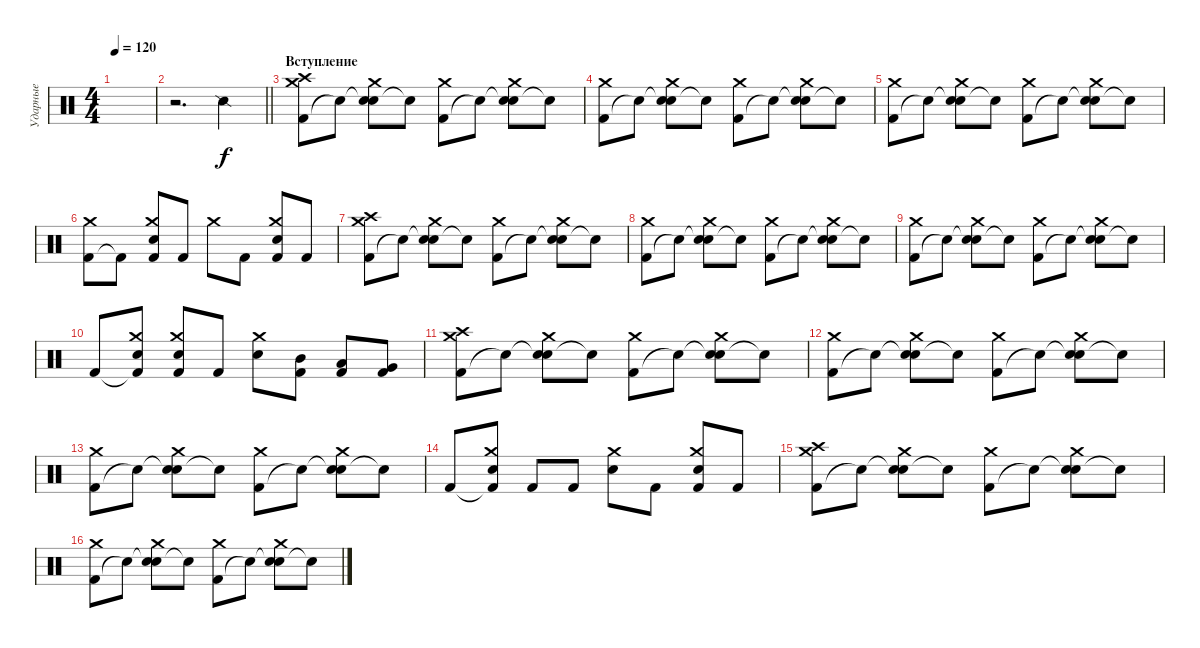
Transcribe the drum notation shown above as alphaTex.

\track ("Ударные" "Ударные") {instrument percussion}
\staff {score}
\articulation defaults
\ts (4 4)
\tempo 120
\clef neutral
\ks c
|
\barLineRight lightlight
r.2{d} "Snare (side stick) 2".4 |
\section ("" "Вступление")
("Kick (hit) 2" "Crash medium (hit)" "Crash high (hit)").8 "Snare (hit)"{t}.8 ("Snare (hit)"{t} "Crash medium (hit)" "Electric Snare (hit)").8 "Snare (hit)"{t}.8 ("Kick (hit) 2" "Crash medium (hit)").8 "Snare (hit)"{t}.8 ("Snare (hit)"{t} "Crash medium (hit)" "Electric Snare (hit)").8 "Snare (hit)"{t}.8 |
("Kick (hit) 2" "Crash medium (hit)").8 "Snare (hit)"{t}.8 ("Snare (hit)"{t} "Crash medium (hit)" "Electric Snare (hit)").8 "Snare (hit)"{t}.8 ("Kick (hit) 2" "Crash medium (hit)").8 "Snare (hit)"{t}.8 ("Snare (hit)"{t} "Crash medium (hit)" "Electric Snare (hit)").8 "Snare (hit)"{t}.8 |
("Kick (hit) 2" "Crash medium (hit)").8 "Snare (hit)"{t}.8 ("Snare (hit)"{t} "Crash medium (hit)" "Electric Snare (hit)").8 "Snare (hit)"{t}.8 ("Kick (hit) 2" "Crash medium (hit)").8 "Snare (hit)"{t}.8 ("Snare (hit)"{t} "Crash medium (hit)" "Electric Snare (hit)").8 "Snare (hit)"{t}.8 |
("Kick (hit) 2" "Crash medium (hit)").8 "Kick (hit) 2"{t}.8 ("Kick (hit) 2" "Crash medium (hit)" "Electric Snare (hit)").8 "Kick (hit) 2".8 "Crash medium (hit)".8 "Kick (hit) 2".8 ("Kick (hit) 2" "Crash medium (hit)" "Electric Snare (hit)").8 "Kick (hit) 2".8 |
("Kick (hit) 2" "Crash medium (hit)" "Crash high (hit)").8 "Snare (hit)"{t}.8 ("Snare (hit)"{t} "Crash medium (hit)" "Electric Snare (hit)").8 "Snare (hit)"{t}.8 ("Kick (hit) 2" "Crash medium (hit)").8 "Snare (hit)"{t}.8 ("Snare (hit)"{t} "Crash medium (hit)" "Electric Snare (hit)").8 "Snare (hit)"{t}.8 |
("Kick (hit) 2" "Crash medium (hit)").8 "Snare (hit)"{t}.8 ("Snare (hit)"{t} "Crash medium (hit)" "Electric Snare (hit)").8 "Snare (hit)"{t}.8 ("Kick (hit) 2" "Crash medium (hit)").8 "Snare (hit)"{t}.8 ("Snare (hit)"{t} "Crash medium (hit)" "Electric Snare (hit)").8 "Snare (hit)"{t}.8 |
("Kick (hit) 2" "Crash medium (hit)").8 "Snare (hit)"{t}.8 ("Snare (hit)"{t} "Crash medium (hit)" "Electric Snare (hit)").8 "Snare (hit)"{t}.8 ("Kick (hit) 2" "Crash medium (hit)").8 "Snare (hit)"{t}.8 ("Snare (hit)"{t} "Crash medium (hit)" "Electric Snare (hit)").8 "Snare (hit)"{t}.8 |
"Kick (hit) 2".8 ("Kick (hit) 2"{t} "Crash medium (hit)" "Electric Snare (hit)").8 ("Kick (hit) 2" "Crash medium (hit)" "Electric Snare (hit)").8 "Kick (hit) 2".8 ("Crash medium (hit)" "Electric Snare (hit)").8 ("Kick (hit) 2" "Mid Tom (hit)").8 ("Kick (hit) 2" "Low Tom (hit)").8 ("Kick (hit) 2" "Very Low Tom (hit)").8 |
("Kick (hit) 2" "Crash medium (hit)" "Crash high (hit)").8 "Snare (hit)"{t}.8 ("Snare (hit)"{t} "Crash medium (hit)" "Electric Snare (hit)").8 "Snare (hit)"{t}.8 ("Kick (hit) 2" "Crash medium (hit)").8 "Snare (hit)"{t}.8 ("Snare (hit)"{t} "Crash medium (hit)" "Electric Snare (hit)").8 "Snare (hit)"{t}.8 |
("Kick (hit) 2" "Crash medium (hit)").8 "Snare (hit)"{t}.8 ("Snare (hit)"{t} "Crash medium (hit)" "Electric Snare (hit)").8 "Snare (hit)"{t}.8 ("Kick (hit) 2" "Crash medium (hit)").8 "Snare (hit)"{t}.8 ("Snare (hit)"{t} "Crash medium (hit)" "Electric Snare (hit)").8 "Snare (hit)"{t}.8 |
("Kick (hit) 2" "Crash medium (hit)").8 "Snare (hit)"{t}.8 ("Snare (hit)"{t} "Crash medium (hit)" "Electric Snare (hit)").8 "Snare (hit)"{t}.8 ("Kick (hit) 2" "Crash medium (hit)").8 "Snare (hit)"{t}.8 ("Snare (hit)"{t} "Crash medium (hit)" "Electric Snare (hit)").8 "Snare (hit)"{t}.8 |
"Kick (hit) 2".8 ("Kick (hit) 2"{t} "Crash medium (hit)" "Electric Snare (hit)").8 "Kick (hit) 2".8 "Kick (hit) 2".8 ("Crash medium (hit)" "Electric Snare (hit)").8 "Kick (hit) 2".8 ("Kick (hit) 2" "Crash medium (hit)" "Electric Snare (hit)").8 "Kick (hit) 2".8 |
("Kick (hit) 2" "Crash medium (hit)" "Crash high (hit)").8 "Snare (hit)"{t}.8 ("Snare (hit)"{t} "Crash medium (hit)" "Electric Snare (hit)").8 "Snare (hit)"{t}.8 ("Kick (hit) 2" "Crash medium (hit)").8 "Snare (hit)"{t}.8 ("Snare (hit)"{t} "Crash medium (hit)" "Electric Snare (hit)").8 "Snare (hit)"{t}.8 |
("Kick (hit) 2" "Crash medium (hit)").8 "Snare (hit)"{t}.8 ("Snare (hit)"{t} "Crash medium (hit)" "Electric Snare (hit)").8 "Snare (hit)"{t}.8 ("Kick (hit) 2" "Crash medium (hit)").8 "Snare (hit)"{t}.8 ("Snare (hit)"{t} "Crash medium (hit)" "Electric Snare (hit)").8 "Snare (hit)"{t}.8
